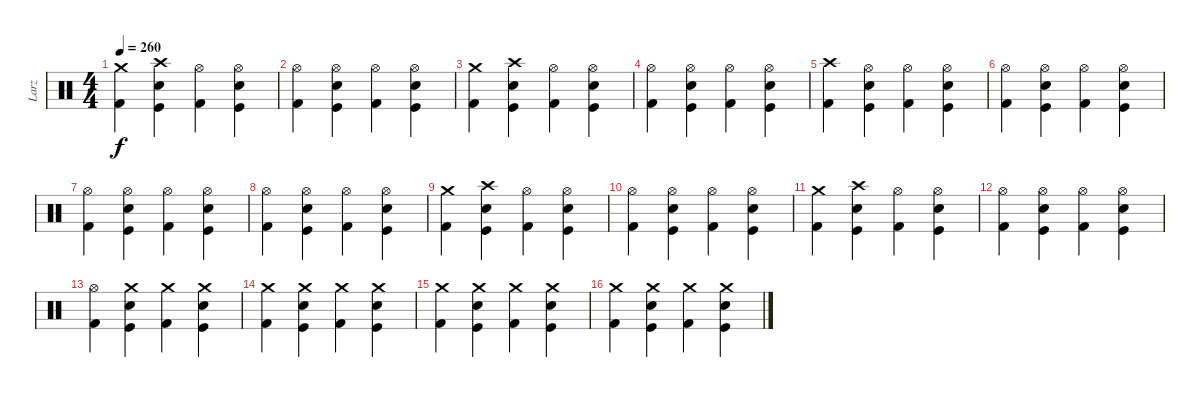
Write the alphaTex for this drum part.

\track ("Larz" "Larz") {instrument percussion}
\staff {score}
\articulation defaults
\ts (4 4)
\tempo 260
\clef neutral
\ks c
("Crash medium (hit)" "Kick (hit) 2").4{dy f} ("Crash high (hit)" "Kick (hit)" "Electric Snare (hit)").4 ("Hi-Hat (open)" "Kick (hit) 2").4 ("Hi-Hat (open)" "Kick (hit)" "Electric Snare (hit)").4 |
("Hi-Hat (open)" "Kick (hit) 2").4 ("Hi-Hat (open)" "Kick (hit)" "Electric Snare (hit)").4 ("Hi-Hat (open)" "Kick (hit) 2").4 ("Hi-Hat (open)" "Kick (hit)" "Electric Snare (hit)").4 |
("Crash medium (hit)" "Kick (hit) 2").4 ("Crash high (hit)" "Kick (hit)" "Electric Snare (hit)").4 ("Hi-Hat (open)" "Kick (hit) 2").4 ("Hi-Hat (open)" "Kick (hit)" "Electric Snare (hit)").4 |
("Hi-Hat (open)" "Kick (hit) 2").4 ("Hi-Hat (open)" "Kick (hit)" "Electric Snare (hit)").4 ("Hi-Hat (open)" "Kick (hit) 2").4 ("Hi-Hat (open)" "Kick (hit)" "Electric Snare (hit)").4 |
("Crash high (hit)" "Kick (hit) 2").4 ("Hi-Hat (open)" "Kick (hit)" "Electric Snare (hit)").4 ("Hi-Hat (open)" "Kick (hit) 2").4 ("Hi-Hat (open)" "Kick (hit)" "Electric Snare (hit)").4 |
("Hi-Hat (open)" "Kick (hit) 2").4 ("Hi-Hat (open)" "Kick (hit)" "Electric Snare (hit)").4 ("Hi-Hat (open)" "Kick (hit) 2").4 ("Hi-Hat (open)" "Kick (hit)" "Electric Snare (hit)").4 |
("Hi-Hat (open)" "Kick (hit) 2").4 ("Hi-Hat (open)" "Kick (hit)" "Electric Snare (hit)").4 ("Hi-Hat (open)" "Kick (hit) 2").4 ("Hi-Hat (open)" "Kick (hit)" "Electric Snare (hit)").4 |
("Hi-Hat (open)" "Kick (hit) 2").4 ("Hi-Hat (open)" "Kick (hit)" "Electric Snare (hit)").4 ("Hi-Hat (open)" "Kick (hit) 2").4 ("Hi-Hat (open)" "Kick (hit)" "Electric Snare (hit)").4 |
("Crash medium (hit)" "Kick (hit) 2").4 ("Crash high (hit)" "Kick (hit)" "Electric Snare (hit)").4 ("Hi-Hat (open)" "Kick (hit) 2").4 ("Hi-Hat (open)" "Kick (hit)" "Electric Snare (hit)").4 |
("Hi-Hat (open)" "Kick (hit) 2").4 ("Hi-Hat (open)" "Kick (hit)" "Electric Snare (hit)").4 ("Hi-Hat (open)" "Kick (hit) 2").4 ("Hi-Hat (open)" "Kick (hit)" "Electric Snare (hit)").4 |
("Crash medium (hit)" "Kick (hit) 2").4 ("Crash high (hit)" "Kick (hit)" "Electric Snare (hit)").4 ("Hi-Hat (open)" "Kick (hit) 2").4 ("Hi-Hat (open)" "Kick (hit)" "Electric Snare (hit)").4 |
("Hi-Hat (open)" "Kick (hit) 2").4 ("Hi-Hat (open)" "Kick (hit)" "Electric Snare (hit)").4 ("Hi-Hat (open)" "Kick (hit) 2").4 ("Hi-Hat (open)" "Kick (hit)" "Electric Snare (hit)").4 |
("Hi-Hat (open)" "Kick (hit) 2").4 ("Crash medium (hit)" "Kick (hit)" "Electric Snare (hit)").4 ("Crash medium (hit)" "Kick (hit) 2").4 ("Crash medium (hit)" "Kick (hit)" "Electric Snare (hit)").4 |
("Crash medium (hit)" "Kick (hit) 2").4 ("Crash medium (hit)" "Kick (hit)" "Electric Snare (hit)").4 ("Crash medium (hit)" "Kick (hit) 2").4 ("Crash medium (hit)" "Kick (hit)" "Electric Snare (hit)").4 |
("Crash medium (hit)" "Kick (hit) 2").4 ("Crash medium (hit)" "Kick (hit)" "Electric Snare (hit)").4 ("Crash medium (hit)" "Kick (hit) 2").4 ("Crash medium (hit)" "Kick (hit)" "Electric Snare (hit)").4 |
("Crash medium (hit)" "Kick (hit) 2").4 ("Crash medium (hit)" "Kick (hit)" "Electric Snare (hit)").4 ("Crash medium (hit)" "Kick (hit) 2").4 ("Crash medium (hit)" "Kick (hit)" "Electric Snare (hit)").4
